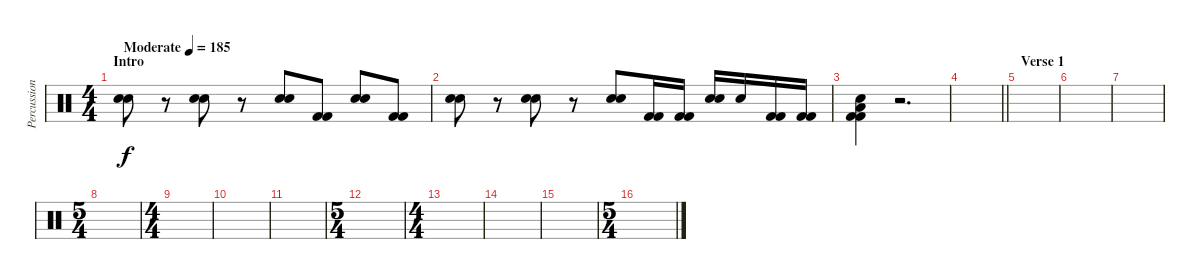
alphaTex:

\track ("Percussion" "Percussion") {instrument percussion}
\staff {score}
\articulation defaults
\ts (4 4)
\section ("" "Intro")
\tempo (185 "Moderate")
\clef neutral
\ks c
("Electric Snare (hit)" "Electric Snare (hit)").8{dy f} r.8 ("Electric Snare (hit)" "Electric Snare (hit)").8 r.8 ("Electric Snare (hit)" "Electric Snare (hit)").8 ("Kick (hit) 2" "Kick (hit) 2").8 ("Electric Snare (hit)" "Electric Snare (hit)").8 ("Kick (hit) 2" "Kick (hit) 2").8 |
("Electric Snare (hit)" "Electric Snare (hit)").8 r.8 ("Electric Snare (hit)" "Electric Snare (hit)").8 r.8 ("Electric Snare (hit)" "Electric Snare (hit)").8 ("Kick (hit) 2" "Kick (hit) 2").16 ("Kick (hit) 2" "Kick (hit) 2").16 ("Electric Snare (hit)" "Electric Snare (hit)").16 "Electric Snare (hit)".16 ("Kick (hit) 2" "Kick (hit) 2").16 ("Kick (hit) 2" "Kick (hit) 2").16 |
("Electric Snare (hit)" "Low Tom (hit)" "Kick (hit) 2" "Kick (hit) 2").4 r.2{d} |
\barLineRight lightlight
|
\section ("" "Verse 1")
|
|
|
\ts (5 4)
|
\ts (4 4)
|
|
|
\ts (5 4)
|
\ts (4 4)
|
|
|
\ts (5 4)
